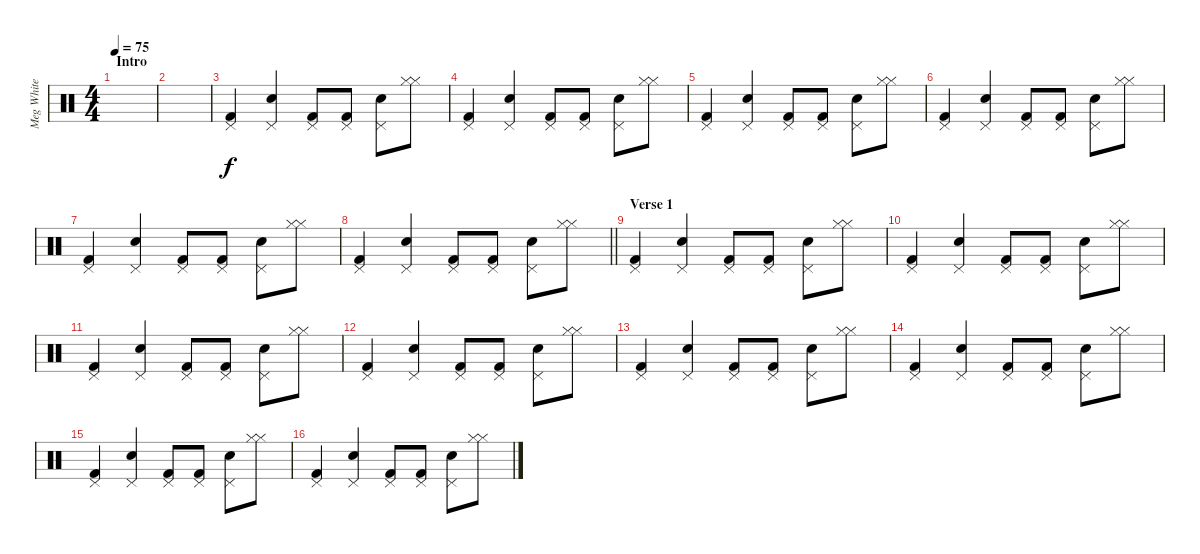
\track ("Meg White" "Meg White") {instrument percussion}
\staff {score}
\articulation defaults
\ts (4 4)
\section ("" "Intro")
\tempo 75
\clef neutral
\ks c
|
|
("Pedal Hi-Hat (hit)" "Kick (hit) 2").4 ("Pedal Hi-Hat (hit)" "Electric Snare (hit)").4 ("Pedal Hi-Hat (hit)" "Kick (hit) 2").8 ("Pedal Hi-Hat (hit)" "Kick (hit) 2").8 ("Pedal Hi-Hat (hit)" "Electric Snare (hit)").8 ("Hi-Hat (closed)" "Hi-Hat (closed)").8 |
("Pedal Hi-Hat (hit)" "Kick (hit) 2").4 ("Pedal Hi-Hat (hit)" "Electric Snare (hit)").4 ("Pedal Hi-Hat (hit)" "Kick (hit) 2").8 ("Pedal Hi-Hat (hit)" "Kick (hit) 2").8 ("Pedal Hi-Hat (hit)" "Electric Snare (hit)").8 ("Hi-Hat (closed)" "Hi-Hat (closed)").8 |
("Pedal Hi-Hat (hit)" "Kick (hit) 2").4 ("Pedal Hi-Hat (hit)" "Electric Snare (hit)").4 ("Pedal Hi-Hat (hit)" "Kick (hit) 2").8 ("Pedal Hi-Hat (hit)" "Kick (hit) 2").8 ("Pedal Hi-Hat (hit)" "Electric Snare (hit)").8 ("Hi-Hat (closed)" "Hi-Hat (closed)").8 |
("Pedal Hi-Hat (hit)" "Kick (hit) 2").4 ("Pedal Hi-Hat (hit)" "Electric Snare (hit)").4 ("Pedal Hi-Hat (hit)" "Kick (hit) 2").8 ("Pedal Hi-Hat (hit)" "Kick (hit) 2").8 ("Pedal Hi-Hat (hit)" "Electric Snare (hit)").8 ("Hi-Hat (closed)" "Hi-Hat (closed)").8 |
("Pedal Hi-Hat (hit)" "Kick (hit) 2").4 ("Pedal Hi-Hat (hit)" "Electric Snare (hit)").4 ("Pedal Hi-Hat (hit)" "Kick (hit) 2").8 ("Pedal Hi-Hat (hit)" "Kick (hit) 2").8 ("Pedal Hi-Hat (hit)" "Electric Snare (hit)").8 ("Hi-Hat (closed)" "Hi-Hat (closed)").8 |
\barLineRight lightlight
("Pedal Hi-Hat (hit)" "Kick (hit) 2").4 ("Pedal Hi-Hat (hit)" "Electric Snare (hit)").4 ("Pedal Hi-Hat (hit)" "Kick (hit) 2").8 ("Pedal Hi-Hat (hit)" "Kick (hit) 2").8 ("Pedal Hi-Hat (hit)" "Electric Snare (hit)").8 ("Hi-Hat (closed)" "Hi-Hat (closed)").8 |
\section ("" "Verse 1")
("Pedal Hi-Hat (hit)" "Kick (hit) 2").4 ("Pedal Hi-Hat (hit)" "Electric Snare (hit)").4 ("Pedal Hi-Hat (hit)" "Kick (hit) 2").8 ("Pedal Hi-Hat (hit)" "Kick (hit) 2").8 ("Pedal Hi-Hat (hit)" "Electric Snare (hit)").8 ("Hi-Hat (closed)" "Hi-Hat (closed)").8 |
("Pedal Hi-Hat (hit)" "Kick (hit) 2").4 ("Pedal Hi-Hat (hit)" "Electric Snare (hit)").4 ("Pedal Hi-Hat (hit)" "Kick (hit) 2").8 ("Pedal Hi-Hat (hit)" "Kick (hit) 2").8 ("Pedal Hi-Hat (hit)" "Electric Snare (hit)").8 ("Hi-Hat (closed)" "Hi-Hat (closed)").8 |
("Pedal Hi-Hat (hit)" "Kick (hit) 2").4 ("Pedal Hi-Hat (hit)" "Electric Snare (hit)").4 ("Pedal Hi-Hat (hit)" "Kick (hit) 2").8 ("Pedal Hi-Hat (hit)" "Kick (hit) 2").8 ("Pedal Hi-Hat (hit)" "Electric Snare (hit)").8 ("Hi-Hat (closed)" "Hi-Hat (closed)").8 |
("Pedal Hi-Hat (hit)" "Kick (hit) 2").4 ("Pedal Hi-Hat (hit)" "Electric Snare (hit)").4 ("Pedal Hi-Hat (hit)" "Kick (hit) 2").8 ("Pedal Hi-Hat (hit)" "Kick (hit) 2").8 ("Pedal Hi-Hat (hit)" "Electric Snare (hit)").8 ("Hi-Hat (closed)" "Hi-Hat (closed)").8 |
("Pedal Hi-Hat (hit)" "Kick (hit) 2").4 ("Pedal Hi-Hat (hit)" "Electric Snare (hit)").4 ("Pedal Hi-Hat (hit)" "Kick (hit) 2").8 ("Pedal Hi-Hat (hit)" "Kick (hit) 2").8 ("Pedal Hi-Hat (hit)" "Electric Snare (hit)").8 ("Hi-Hat (closed)" "Hi-Hat (closed)").8 |
("Pedal Hi-Hat (hit)" "Kick (hit) 2").4 ("Pedal Hi-Hat (hit)" "Electric Snare (hit)").4 ("Pedal Hi-Hat (hit)" "Kick (hit) 2").8 ("Pedal Hi-Hat (hit)" "Kick (hit) 2").8 ("Pedal Hi-Hat (hit)" "Electric Snare (hit)").8 ("Hi-Hat (closed)" "Hi-Hat (closed)").8 |
("Pedal Hi-Hat (hit)" "Kick (hit) 2").4 ("Pedal Hi-Hat (hit)" "Electric Snare (hit)").4 ("Pedal Hi-Hat (hit)" "Kick (hit) 2").8 ("Pedal Hi-Hat (hit)" "Kick (hit) 2").8 ("Pedal Hi-Hat (hit)" "Electric Snare (hit)").8 ("Hi-Hat (closed)" "Hi-Hat (closed)").8 |
("Pedal Hi-Hat (hit)" "Kick (hit) 2").4 ("Pedal Hi-Hat (hit)" "Electric Snare (hit)").4 ("Pedal Hi-Hat (hit)" "Kick (hit) 2").8 ("Pedal Hi-Hat (hit)" "Kick (hit) 2").8 ("Pedal Hi-Hat (hit)" "Electric Snare (hit)").8 ("Hi-Hat (closed)" "Hi-Hat (closed)").8
